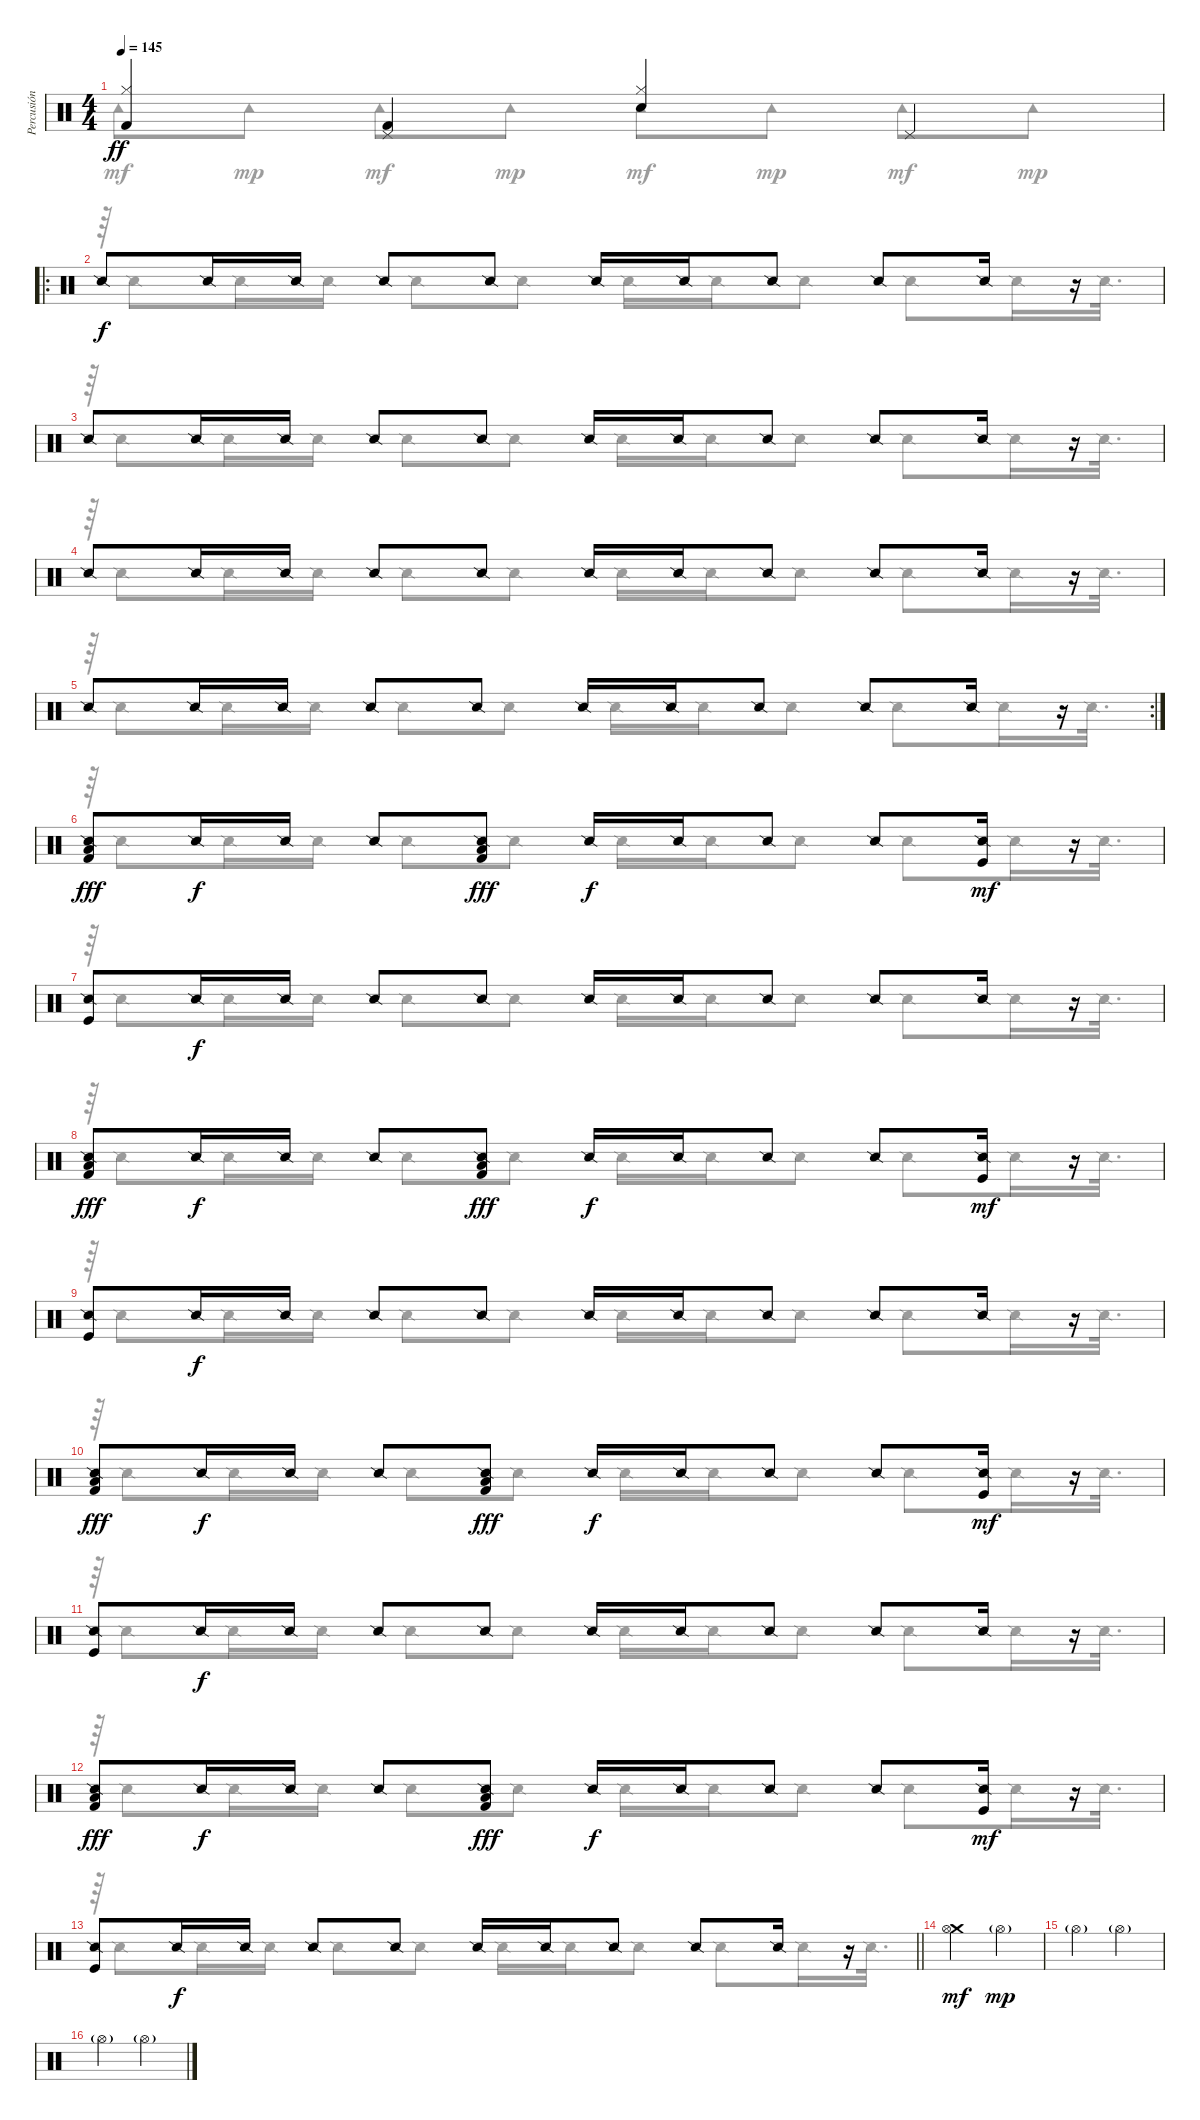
\track ("Percusión" "Percusión") {instrument percussion}
\staff {score}
\articulation defaults
\voice
\ts (4 4)
\tempo 145
\clef neutral
\ks c
("Hi-Hat (closed)" "Kick (hit) 2").4{dy ff} ("Pedal Hi-Hat (hit)" "Kick (hit) 2").4 ("Hi-Hat (closed)" "Electric Snare (hit)").4 "Pedal Hi-Hat (hit)".4 |
\ro "Snare (side stick) 2".8{dy f} "Snare (side stick) 2".16 "Snare (side stick) 2".16 "Snare (side stick) 2".8 "Snare (side stick) 2".8 "Snare (side stick) 2".16 "Snare (side stick) 2".16 "Snare (side stick) 2".8 "Snare (side stick) 2".8 "Snare (side stick) 2".16
r.16 |
"Snare (side stick) 2".8 "Snare (side stick) 2".16 "Snare (side stick) 2".16 "Snare (side stick) 2".8 "Snare (side stick) 2".8 "Snare (side stick) 2".16 "Snare (side stick) 2".16 "Snare (side stick) 2".8 "Snare (side stick) 2".8 "Snare (side stick) 2".16 r.16 |
"Snare (side stick) 2".8 "Snare (side stick) 2".16 "Snare (side stick) 2".16 "Snare (side stick) 2".8 "Snare (side stick) 2".8 "Snare (side stick) 2".16 "Snare (side stick) 2".16 "Snare (side stick) 2".8 "Snare (side stick) 2".8 "Snare (side stick) 2".16 r.16 |
\rc 2 "Snare (side stick) 2".8 "Snare (side stick) 2".16 "Snare (side stick) 2".16 "Snare (side stick) 2".8 "Snare (side stick) 2".8 "Snare (side stick) 2".16 "Snare (side stick) 2".16 "Snare (side stick) 2".8 "Snare (side stick) 2".8 "Snare (side stick) 2".16
r.16 |
("Snare (side stick) 2" "Low Floor Tom (hit)" "Kick (hit) 2").8{dy fff} "Snare (side stick) 2".16{dy f} "Snare (side stick) 2".16 "Snare (side stick) 2".8 ("Snare (side stick) 2" "Low Floor Tom (hit)" "Kick (hit) 2").8{dy fff} "Snare (side stick) 2".16{dy f} "Snare (side stick) 2".16 "Snare (side stick) 2".8 "Snare (side stick) 2".8 ("Snare (side stick) 2" "Kick (hit)").16{dy mf} r.16 |
("Snare (side stick) 2" "Kick (hit)").8 "Snare (side stick) 2".16{dy f} "Snare (side stick) 2".16 "Snare (side stick) 2".8 "Snare (side stick) 2".8 "Snare (side stick) 2".16 "Snare (side stick) 2".16 "Snare (side stick) 2".8 "Snare (side stick) 2".8 "Snare (side stick) 2".16 r.16 |
("Snare (side stick) 2" "Low Floor Tom (hit)" "Kick (hit) 2").8{dy fff} "Snare (side stick) 2".16{dy f} "Snare (side stick) 2".16 "Snare (side stick) 2".8 ("Snare (side stick) 2" "Low Floor Tom (hit)" "Kick (hit) 2").8{dy fff} "Snare (side stick) 2".16{dy f} "Snare (side stick) 2".16 "Snare (side stick) 2".8 "Snare (side stick) 2".8 ("Snare (side stick) 2" "Kick (hit)").16{dy mf} r.16 |
("Snare (side stick) 2" "Kick (hit)").8 "Snare (side stick) 2".16{dy f} "Snare (side stick) 2".16 "Snare (side stick) 2".8 "Snare (side stick) 2".8 "Snare (side stick) 2".16 "Snare (side stick) 2".16 "Snare (side stick) 2".8 "Snare (side stick) 2".8 "Snare (side stick) 2".16 r.16 |
("Snare (side stick) 2" "Low Floor Tom (hit)" "Kick (hit) 2").8{dy fff} "Snare (side stick) 2".16{dy f} "Snare (side stick) 2".16 "Snare (side stick) 2".8 ("Snare (side stick) 2" "Low Floor Tom (hit)" "Kick (hit) 2").8{dy fff} "Snare (side stick) 2".16{dy f} "Snare (side stick) 2".16 "Snare (side stick) 2".8 "Snare (side stick) 2".8 ("Snare (side stick) 2" "Kick (hit)").16{dy mf} r.16 |
("Snare (side stick) 2" "Kick (hit)").8 "Snare (side stick) 2".16{dy f} "Snare (side stick) 2".16 "Snare (side stick) 2".8 "Snare (side stick) 2".8 "Snare (side stick) 2".16 "Snare (side stick) 2".16 "Snare (side stick) 2".8 "Snare (side stick) 2".8 "Snare (side stick) 2".16 r.16 |
("Snare (side stick) 2" "Low Floor Tom (hit)" "Kick (hit) 2").8{dy fff} "Snare (side stick) 2".16{dy f} "Snare (side stick) 2".16 "Snare (side stick) 2".8 ("Snare (side stick) 2" "Low Floor Tom (hit)" "Kick (hit) 2").8{dy fff} "Snare (side stick) 2".16{dy f} "Snare (side stick) 2".16 "Snare (side stick) 2".8 "Snare (side stick) 2".8 ("Snare (side stick) 2" "Kick (hit)").16{dy mf} r.16 |
\barLineRight lightlight
("Snare (side stick) 2" "Kick (hit)").8 "Snare (side stick) 2".16{dy f} "Snare (side stick) 2".16 "Snare (side stick) 2".8 "Snare (side stick) 2".8 "Snare (side stick) 2".16 "Snare (side stick) 2".16 "Snare (side stick) 2".8 "Snare (side stick) 2".8 "Snare (side stick) 2".16 r.16 |
("Crash medium (hit)" "Hi-Hat (open)").2{dy mf} "Hi-Hat (open)"{g}.2{dy mp} |
"Hi-Hat (open)"{g}.2 "Hi-Hat (open)"{g}.2 |
"Hi-Hat (open)"{g}.2 "Hi-Hat (open)"{g}.2
\voice
\clef neutral
\ottava regular
\simile none
\ks c "Tambourine (hit)".8{dy mf} "Tambourine (hit)".8{dy mp} "Tambourine (hit)".8{dy mf} "Tambourine (hit)".8{dy mp} "Tambourine (hit)".8{dy mf} "Tambourine (hit)".8{dy mp} "Tambourine (hit)".8{dy mf} "Tambourine (hit)".8{dy mp}
|
r.64 "Snare (side stick) 2".8 "Snare (side stick) 2".16 "Snare (side stick) 2".16 "Snare (side stick) 2".8 "Snare (side stick) 2".8 "Snare (side stick) 2".16 "Snare (side stick) 2".16 "Snare (side stick) 2".8 "Snare (side stick) 2".8 "Snare (side stick) 2".16 "Snare (side stick) 2".32{d} |
r.64 "Snare (side stick) 2".8 "Snare (side stick) 2".16 "Snare (side stick) 2".16 "Snare (side stick) 2".8 "Snare (side stick) 2".8 "Snare (side stick) 2".16 "Snare (side stick) 2".16 "Snare (side stick) 2".8 "Snare (side stick) 2".8 "Snare (side stick) 2".16 "Snare (side stick) 2".32{d} |
r.64 "Snare (side stick) 2".8 "Snare (side stick) 2".16 "Snare (side stick) 2".16 "Snare (side stick) 2".8 "Snare (side stick) 2".8 "Snare (side stick) 2".16 "Snare (side stick) 2".16 "Snare (side stick) 2".8 "Snare (side stick) 2".8 "Snare (side stick) 2".16 "Snare (side stick) 2".32{d} |
r.64 "Snare (side stick) 2".8 "Snare (side stick) 2".16 "Snare (side stick) 2".16 "Snare (side stick) 2".8 "Snare (side stick) 2".8 "Snare (side stick) 2".16 "Snare (side stick) 2".16 "Snare (side stick) 2".8 "Snare (side stick) 2".8 "Snare (side stick) 2".16 "Snare (side stick) 2".32{d} |
r.64 "Snare (side stick) 2".8 "Snare (side stick) 2".16 "Snare (side stick) 2".16 "Snare (side stick) 2".8 "Snare (side stick) 2".8 "Snare (side stick) 2".16 "Snare (side stick) 2".16 "Snare (side stick) 2".8 "Snare (side stick) 2".8 "Snare (side stick) 2".16 "Snare (side stick) 2".32{d} |
r.64 "Snare (side stick) 2".8 "Snare (side stick) 2".16 "Snare (side stick) 2".16 "Snare (side stick) 2".8 "Snare (side stick) 2".8 "Snare (side stick) 2".16 "Snare (side stick) 2".16 "Snare (side stick) 2".8 "Snare (side stick) 2".8 "Snare (side stick) 2".16 "Snare (side stick) 2".32{d} |
r.64 "Snare (side stick) 2".8 "Snare (side stick) 2".16 "Snare (side stick) 2".16 "Snare (side stick) 2".8 "Snare (side stick) 2".8 "Snare (side stick) 2".16 "Snare (side stick) 2".16 "Snare (side stick) 2".8 "Snare (side stick) 2".8 "Snare (side stick) 2".16 "Snare (side stick) 2".32{d} |
r.64 "Snare (side stick) 2".8 "Snare (side stick) 2".16 "Snare (side stick) 2".16 "Snare (side stick) 2".8 "Snare (side stick) 2".8 "Snare (side stick) 2".16 "Snare (side stick) 2".16 "Snare (side stick) 2".8 "Snare (side stick) 2".8 "Snare (side stick) 2".16 "Snare (side stick) 2".32{d} |
r.64 "Snare (side stick) 2".8 "Snare (side stick) 2".16 "Snare (side stick) 2".16 "Snare (side stick) 2".8 "Snare (side stick) 2".8 "Snare (side stick) 2".16 "Snare (side stick) 2".16 "Snare (side stick) 2".8 "Snare (side stick) 2".8 "Snare (side stick) 2".16 "Snare (side stick) 2".32{d} |
r.64 "Snare (side stick) 2".8 "Snare (side stick) 2".16 "Snare (side stick) 2".16 "Snare (side stick) 2".8 "Snare (side stick) 2".8 "Snare (side stick) 2".16 "Snare (side stick) 2".16 "Snare (side stick) 2".8 "Snare (side stick) 2".8 "Snare (side stick) 2".16 "Snare (side stick) 2".32{d} |
r.64 "Snare (side stick) 2".8 "Snare (side stick) 2".16 "Snare (side stick) 2".16 "Snare (side stick) 2".8 "Snare (side stick) 2".8 "Snare (side stick) 2".16 "Snare (side stick) 2".16 "Snare (side stick) 2".8 "Snare (side stick) 2".8 "Snare (side stick) 2".16 "Snare (side stick) 2".32{d} |
\barLineRight lightlight
r.64 "Snare (side stick) 2".8 "Snare (side stick) 2".16 "Snare (side stick) 2".16 "Snare (side stick) 2".8 "Snare (side stick) 2".8 "Snare (side stick) 2".16 "Snare (side stick) 2".16 "Snare (side stick) 2".8 "Snare (side stick) 2".8 "Snare (side stick) 2".16 "Snare (side stick) 2".32{d} |
|
|
